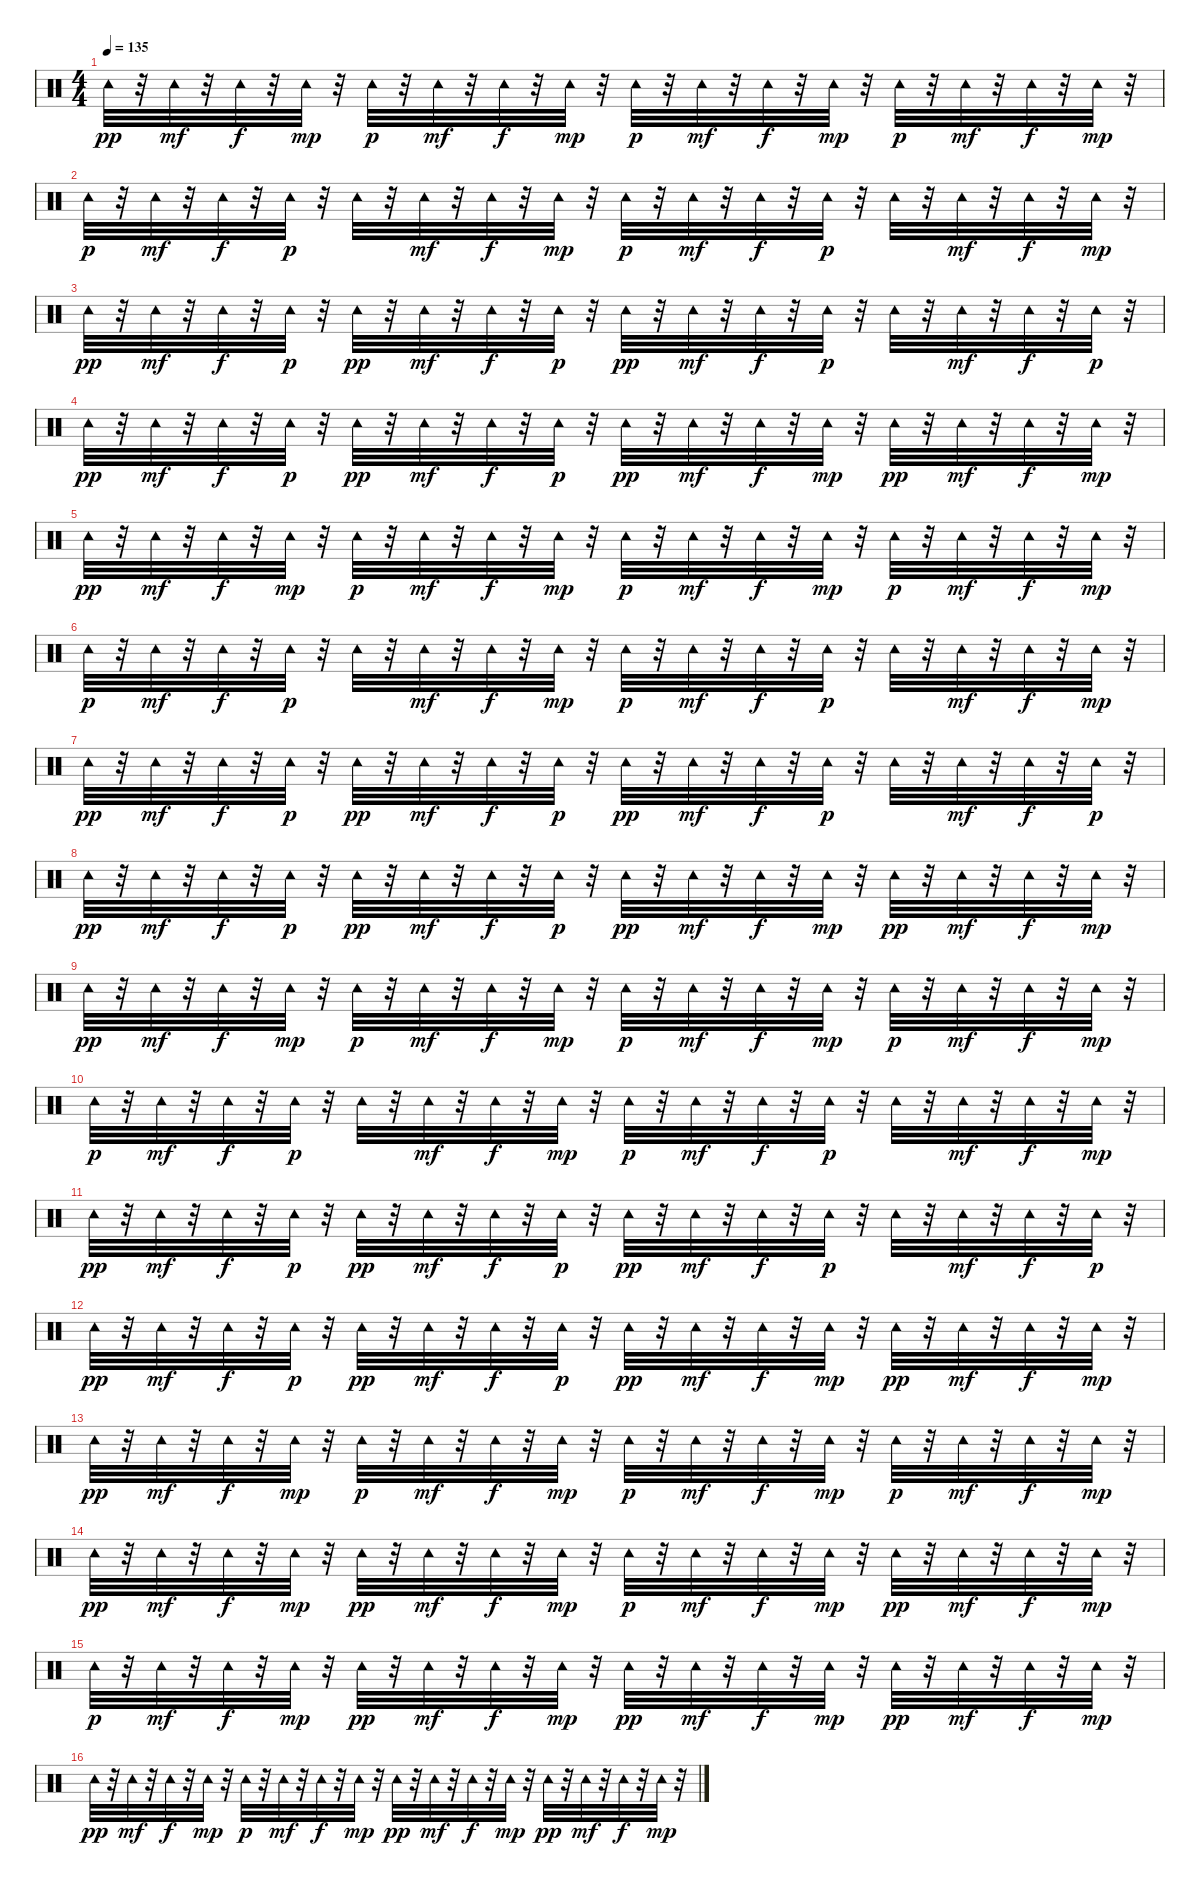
\track "" {instrument percussion}
\staff {score}
\articulation defaults
\ts (4 4)
\tempo 135
\clef neutral
\ks c "Tambourine (hit)".32{dy pp}
r.32 "Tambourine (hit)".32{dy mf} r.32 "Tambourine (hit)".32{dy f} r.32 "Tambourine (hit)".32{dy mp} r.32 "Tambourine (hit)".32{dy p} r.32 "Tambourine (hit)".32{dy mf} r.32 "Tambourine (hit)".32{dy f} r.32 "Tambourine (hit)".32{dy mp} r.32 "Tambourine (hit)".32{dy p} r.32 "Tambourine (hit)".32{dy mf} r.32 "Tambourine (hit)".32{dy f} r.32 "Tambourine (hit)".32{dy mp} r.32 "Tambourine (hit)".32{dy p} r.32 "Tambourine (hit)".32{dy mf} r.32 "Tambourine (hit)".32{dy f} r.32 "Tambourine (hit)".32{dy mp} r.32 |
"Tambourine (hit)".32{dy p} r.32 "Tambourine (hit)".32{dy mf} r.32 "Tambourine (hit)".32{dy f} r.32 "Tambourine (hit)".32{dy p} r.32 "Tambourine (hit)".32 r.32 "Tambourine (hit)".32{dy mf} r.32 "Tambourine (hit)".32{dy f} r.32 "Tambourine (hit)".32{dy mp} r.32 "Tambourine (hit)".32{dy p} r.32 "Tambourine (hit)".32{dy mf} r.32 "Tambourine (hit)".32{dy f} r.32 "Tambourine (hit)".32{dy p} r.32 "Tambourine (hit)".32 r.32 "Tambourine (hit)".32{dy mf} r.32 "Tambourine (hit)".32{dy f} r.32 "Tambourine (hit)".32{dy mp} r.32 |
"Tambourine (hit)".32{dy pp} r.32 "Tambourine (hit)".32{dy mf} r.32 "Tambourine (hit)".32{dy f} r.32 "Tambourine (hit)".32{dy p} r.32 "Tambourine (hit)".32{dy pp} r.32 "Tambourine (hit)".32{dy mf} r.32 "Tambourine (hit)".32{dy f} r.32 "Tambourine (hit)".32{dy p} r.32 "Tambourine (hit)".32{dy pp} r.32 "Tambourine (hit)".32{dy mf} r.32 "Tambourine (hit)".32{dy f} r.32 "Tambourine (hit)".32{dy p} r.32 "Tambourine (hit)".32 r.32 "Tambourine (hit)".32{dy mf} r.32 "Tambourine (hit)".32{dy f} r.32 "Tambourine (hit)".32{dy p} r.32 |
"Tambourine (hit)".32{dy pp} r.32 "Tambourine (hit)".32{dy mf} r.32 "Tambourine (hit)".32{dy f} r.32 "Tambourine (hit)".32{dy p} r.32 "Tambourine (hit)".32{dy pp} r.32 "Tambourine (hit)".32{dy mf} r.32 "Tambourine (hit)".32{dy f} r.32 "Tambourine (hit)".32{dy p} r.32 "Tambourine (hit)".32{dy pp} r.32 "Tambourine (hit)".32{dy mf} r.32 "Tambourine (hit)".32{dy f} r.32 "Tambourine (hit)".32{dy mp} r.32 "Tambourine (hit)".32{dy pp} r.32 "Tambourine (hit)".32{dy mf} r.32 "Tambourine (hit)".32{dy f} r.32 "Tambourine (hit)".32{dy mp} r.32 |
"Tambourine (hit)".32{dy pp} r.32 "Tambourine (hit)".32{dy mf} r.32 "Tambourine (hit)".32{dy f} r.32 "Tambourine (hit)".32{dy mp} r.32 "Tambourine (hit)".32{dy p} r.32 "Tambourine (hit)".32{dy mf} r.32 "Tambourine (hit)".32{dy f} r.32 "Tambourine (hit)".32{dy mp} r.32 "Tambourine (hit)".32{dy p} r.32 "Tambourine (hit)".32{dy mf} r.32 "Tambourine (hit)".32{dy f} r.32 "Tambourine (hit)".32{dy mp} r.32 "Tambourine (hit)".32{dy p} r.32 "Tambourine (hit)".32{dy mf} r.32 "Tambourine (hit)".32{dy f} r.32 "Tambourine (hit)".32{dy mp} r.32 |
"Tambourine (hit)".32{dy p} r.32 "Tambourine (hit)".32{dy mf} r.32 "Tambourine (hit)".32{dy f} r.32 "Tambourine (hit)".32{dy p} r.32 "Tambourine (hit)".32 r.32 "Tambourine (hit)".32{dy mf} r.32 "Tambourine (hit)".32{dy f} r.32 "Tambourine (hit)".32{dy mp} r.32 "Tambourine (hit)".32{dy p} r.32 "Tambourine (hit)".32{dy mf} r.32 "Tambourine (hit)".32{dy f} r.32 "Tambourine (hit)".32{dy p} r.32 "Tambourine (hit)".32 r.32 "Tambourine (hit)".32{dy mf} r.32 "Tambourine (hit)".32{dy f} r.32 "Tambourine (hit)".32{dy mp} r.32 |
"Tambourine (hit)".32{dy pp} r.32 "Tambourine (hit)".32{dy mf} r.32 "Tambourine (hit)".32{dy f} r.32 "Tambourine (hit)".32{dy p} r.32 "Tambourine (hit)".32{dy pp} r.32 "Tambourine (hit)".32{dy mf} r.32 "Tambourine (hit)".32{dy f} r.32 "Tambourine (hit)".32{dy p} r.32 "Tambourine (hit)".32{dy pp} r.32 "Tambourine (hit)".32{dy mf} r.32 "Tambourine (hit)".32{dy f} r.32 "Tambourine (hit)".32{dy p} r.32 "Tambourine (hit)".32 r.32 "Tambourine (hit)".32{dy mf} r.32 "Tambourine (hit)".32{dy f} r.32 "Tambourine (hit)".32{dy p} r.32 |
"Tambourine (hit)".32{dy pp} r.32 "Tambourine (hit)".32{dy mf} r.32 "Tambourine (hit)".32{dy f} r.32 "Tambourine (hit)".32{dy p} r.32 "Tambourine (hit)".32{dy pp} r.32 "Tambourine (hit)".32{dy mf} r.32 "Tambourine (hit)".32{dy f} r.32 "Tambourine (hit)".32{dy p} r.32 "Tambourine (hit)".32{dy pp} r.32 "Tambourine (hit)".32{dy mf} r.32 "Tambourine (hit)".32{dy f} r.32 "Tambourine (hit)".32{dy mp} r.32 "Tambourine (hit)".32{dy pp} r.32 "Tambourine (hit)".32{dy mf} r.32 "Tambourine (hit)".32{dy f} r.32 "Tambourine (hit)".32{dy mp} r.32 |
"Tambourine (hit)".32{dy pp} r.32 "Tambourine (hit)".32{dy mf} r.32 "Tambourine (hit)".32{dy f} r.32 "Tambourine (hit)".32{dy mp} r.32 "Tambourine (hit)".32{dy p} r.32 "Tambourine (hit)".32{dy mf} r.32 "Tambourine (hit)".32{dy f} r.32 "Tambourine (hit)".32{dy mp} r.32 "Tambourine (hit)".32{dy p} r.32 "Tambourine (hit)".32{dy mf} r.32 "Tambourine (hit)".32{dy f} r.32 "Tambourine (hit)".32{dy mp} r.32 "Tambourine (hit)".32{dy p} r.32 "Tambourine (hit)".32{dy mf} r.32 "Tambourine (hit)".32{dy f} r.32 "Tambourine (hit)".32{dy mp} r.32 |
"Tambourine (hit)".32{dy p} r.32 "Tambourine (hit)".32{dy mf} r.32 "Tambourine (hit)".32{dy f} r.32 "Tambourine (hit)".32{dy p} r.32 "Tambourine (hit)".32 r.32 "Tambourine (hit)".32{dy mf} r.32 "Tambourine (hit)".32{dy f} r.32 "Tambourine (hit)".32{dy mp} r.32 "Tambourine (hit)".32{dy p} r.32 "Tambourine (hit)".32{dy mf} r.32 "Tambourine (hit)".32{dy f} r.32 "Tambourine (hit)".32{dy p} r.32 "Tambourine (hit)".32 r.32 "Tambourine (hit)".32{dy mf} r.32 "Tambourine (hit)".32{dy f} r.32 "Tambourine (hit)".32{dy mp} r.32 |
"Tambourine (hit)".32{dy pp} r.32 "Tambourine (hit)".32{dy mf} r.32 "Tambourine (hit)".32{dy f} r.32 "Tambourine (hit)".32{dy p} r.32 "Tambourine (hit)".32{dy pp} r.32 "Tambourine (hit)".32{dy mf} r.32 "Tambourine (hit)".32{dy f} r.32 "Tambourine (hit)".32{dy p} r.32 "Tambourine (hit)".32{dy pp} r.32 "Tambourine (hit)".32{dy mf} r.32 "Tambourine (hit)".32{dy f} r.32 "Tambourine (hit)".32{dy p} r.32 "Tambourine (hit)".32 r.32 "Tambourine (hit)".32{dy mf} r.32 "Tambourine (hit)".32{dy f} r.32 "Tambourine (hit)".32{dy p} r.32 |
"Tambourine (hit)".32{dy pp} r.32 "Tambourine (hit)".32{dy mf} r.32 "Tambourine (hit)".32{dy f} r.32 "Tambourine (hit)".32{dy p} r.32 "Tambourine (hit)".32{dy pp} r.32 "Tambourine (hit)".32{dy mf} r.32 "Tambourine (hit)".32{dy f} r.32 "Tambourine (hit)".32{dy p} r.32 "Tambourine (hit)".32{dy pp} r.32 "Tambourine (hit)".32{dy mf} r.32 "Tambourine (hit)".32{dy f} r.32 "Tambourine (hit)".32{dy mp} r.32 "Tambourine (hit)".32{dy pp} r.32 "Tambourine (hit)".32{dy mf} r.32 "Tambourine (hit)".32{dy f} r.32 "Tambourine (hit)".32{dy mp} r.32 |
"Tambourine (hit)".32{dy pp} r.32 "Tambourine (hit)".32{dy mf} r.32 "Tambourine (hit)".32{dy f} r.32 "Tambourine (hit)".32{dy mp} r.32 "Tambourine (hit)".32{dy p} r.32 "Tambourine (hit)".32{dy mf} r.32 "Tambourine (hit)".32{dy f} r.32 "Tambourine (hit)".32{dy mp} r.32 "Tambourine (hit)".32{dy p} r.32 "Tambourine (hit)".32{dy mf} r.32 "Tambourine (hit)".32{dy f} r.32 "Tambourine (hit)".32{dy mp} r.32 "Tambourine (hit)".32{dy p} r.32 "Tambourine (hit)".32{dy mf} r.32 "Tambourine (hit)".32{dy f} r.32 "Tambourine (hit)".32{dy mp} r.32 |
"Tambourine (hit)".32{dy pp} r.32 "Tambourine (hit)".32{dy mf} r.32 "Tambourine (hit)".32{dy f} r.32 "Tambourine (hit)".32{dy mp} r.32 "Tambourine (hit)".32{dy pp} r.32 "Tambourine (hit)".32{dy mf} r.32 "Tambourine (hit)".32{dy f} r.32 "Tambourine (hit)".32{dy mp} r.32 "Tambourine (hit)".32{dy p} r.32 "Tambourine (hit)".32{dy mf} r.32 "Tambourine (hit)".32{dy f} r.32 "Tambourine (hit)".32{dy mp} r.32 "Tambourine (hit)".32{dy pp} r.32 "Tambourine (hit)".32{dy mf} r.32 "Tambourine (hit)".32{dy f} r.32 "Tambourine (hit)".32{dy mp} r.32 |
"Tambourine (hit)".32{dy p} r.32 "Tambourine (hit)".32{dy mf} r.32 "Tambourine (hit)".32{dy f} r.32 "Tambourine (hit)".32{dy mp} r.32 "Tambourine (hit)".32{dy pp} r.32 "Tambourine (hit)".32{dy mf} r.32 "Tambourine (hit)".32{dy f} r.32 "Tambourine (hit)".32{dy mp} r.32 "Tambourine (hit)".32{dy pp} r.32 "Tambourine (hit)".32{dy mf} r.32 "Tambourine (hit)".32{dy f} r.32 "Tambourine (hit)".32{dy mp} r.32 "Tambourine (hit)".32{dy pp} r.32 "Tambourine (hit)".32{dy mf} r.32 "Tambourine (hit)".32{dy f} r.32 "Tambourine (hit)".32{dy mp} r.32 |
"Tambourine (hit)".32{dy pp} r.32 "Tambourine (hit)".32{dy mf} r.32 "Tambourine (hit)".32{dy f} r.32 "Tambourine (hit)".32{dy mp} r.32 "Tambourine (hit)".32{dy p} r.32 "Tambourine (hit)".32{dy mf} r.32 "Tambourine (hit)".32{dy f} r.32 "Tambourine (hit)".32{dy mp} r.32 "Tambourine (hit)".32{dy pp} r.32 "Tambourine (hit)".32{dy mf} r.32 "Tambourine (hit)".32{dy f} r.32 "Tambourine (hit)".32{dy mp} r.32 "Tambourine (hit)".32{dy pp} r.32 "Tambourine (hit)".32{dy mf} r.32 "Tambourine (hit)".32{dy f} r.32 "Tambourine (hit)".32{dy mp} r.32
